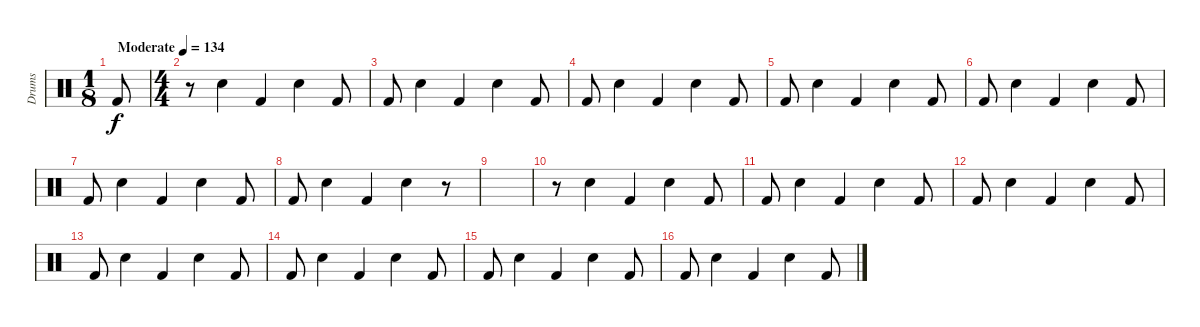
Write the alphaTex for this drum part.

\track ("Drums" "Drums") {instrument percussion}
\staff {score}
\articulation defaults
\ts (1 8)
\tempo (134 "Moderate")
\clef neutral
\ks c "Kick (hit) 2".8{dy f}
|
\ts (4 4)
r.8 "Electric Snare (hit)".4 "Kick (hit) 2".4 "Electric Snare (hit)".4 "Kick (hit) 2".8 |
"Kick (hit) 2".8 "Electric Snare (hit)".4 "Kick (hit) 2".4 "Electric Snare (hit)".4 "Kick (hit) 2".8 |
"Kick (hit) 2".8 "Electric Snare (hit)".4 "Kick (hit) 2".4 "Electric Snare (hit)".4 "Kick (hit) 2".8 |
"Kick (hit) 2".8 "Electric Snare (hit)".4 "Kick (hit) 2".4 "Electric Snare (hit)".4 "Kick (hit) 2".8 |
"Kick (hit) 2".8 "Electric Snare (hit)".4 "Kick (hit) 2".4 "Electric Snare (hit)".4 "Kick (hit) 2".8 |
"Kick (hit) 2".8 "Electric Snare (hit)".4 "Kick (hit) 2".4 "Electric Snare (hit)".4 "Kick (hit) 2".8 |
"Kick (hit) 2".8 "Electric Snare (hit)".4 "Kick (hit) 2".4 "Electric Snare (hit)".4 r.8 |
|
r.8 "Electric Snare (hit)".4 "Kick (hit) 2".4 "Electric Snare (hit)".4 "Kick (hit) 2".8 |
"Kick (hit) 2".8 "Electric Snare (hit)".4 "Kick (hit) 2".4 "Electric Snare (hit)".4 "Kick (hit) 2".8 |
"Kick (hit) 2".8 "Electric Snare (hit)".4 "Kick (hit) 2".4 "Electric Snare (hit)".4 "Kick (hit) 2".8 |
"Kick (hit) 2".8 "Electric Snare (hit)".4 "Kick (hit) 2".4 "Electric Snare (hit)".4 "Kick (hit) 2".8 |
"Kick (hit) 2".8 "Electric Snare (hit)".4 "Kick (hit) 2".4 "Electric Snare (hit)".4 "Kick (hit) 2".8 |
"Kick (hit) 2".8 "Electric Snare (hit)".4 "Kick (hit) 2".4 "Electric Snare (hit)".4 "Kick (hit) 2".8 |
"Kick (hit) 2".8 "Electric Snare (hit)".4 "Kick (hit) 2".4 "Electric Snare (hit)".4 "Kick (hit) 2".8
